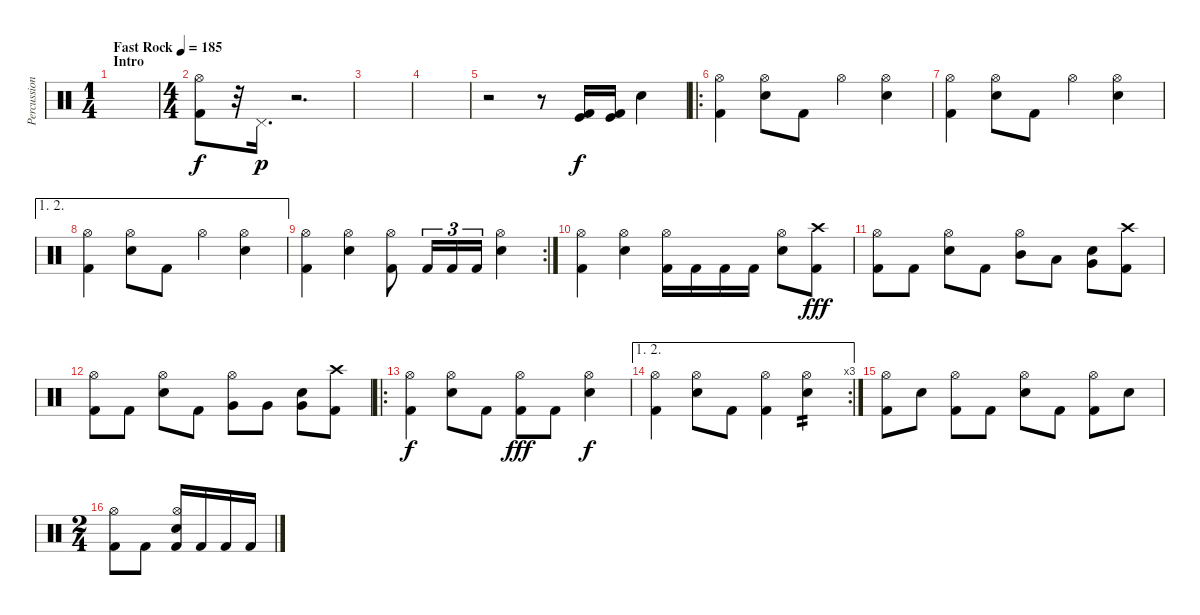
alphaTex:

\track ("Percussioni" "Percussion") {instrument percussion}
\staff {score}
\articulation defaults
\ts (1 4)
\section ("" "Intro")
\tempo (185 "Fast Rock")
\clef neutral
\ks c
|
\ts (4 4)
("Kick (hit) 2" "Hi-Hat (open)").8 r.32 "Pedal Hi-Hat (hit)".16{d dy p} r.2{d} |
|
|
r.2 r.8 ("Kick (hit)" "Kick (hit) 2").16{dy f} ("Kick (hit)" "Kick (hit) 2").16 "Snare (hit) 2".4 |
\ro
("Kick (hit) 2" "Hi-Hat (open)").4 ("Snare (hit) 2" "Hi-Hat (open)").8 "Kick (hit) 2".8 "Hi-Hat (open)".4 ("Snare (hit) 2" "Hi-Hat (open)").4 |
("Kick (hit) 2" "Hi-Hat (open)").4 ("Snare (hit) 2" "Hi-Hat (open)").8 "Kick (hit) 2".8 "Hi-Hat (open)".4 ("Snare (hit) 2" "Hi-Hat (open)").4 |
\ae (1 2)
("Kick (hit) 2" "Hi-Hat (open)").4 ("Snare (hit) 2" "Hi-Hat (open)").8 "Kick (hit) 2".8 "Hi-Hat (open)".4 ("Snare (hit) 2" "Hi-Hat (open)").4 |
\rc 2
("Kick (hit) 2" "Hi-Hat (open)").4 ("Snare (hit) 2" "Hi-Hat (open)").4 ("Kick (hit) 2" "Hi-Hat (open)").8 "Kick (hit) 2".16{tu (3 2)} "Kick (hit) 2".16{tu (3 2)} "Kick (hit) 2".16{tu (3 2)} ("Snare (hit) 2" "Hi-Hat (open)").4 |
("Kick (hit) 2" "Hi-Hat (open)").4 ("Snare (hit) 2" "Hi-Hat (open)").4 ("Kick (hit) 2" "Hi-Hat (open)").16 "Kick (hit) 2".16 "Kick (hit) 2".16 "Kick (hit) 2".16 ("Snare (hit) 2" "Hi-Hat (open)").8 ("Kick (hit) 2" "Crash high (hit)").8{dy fff} |
("Kick (hit) 2" "Hi-Hat (open)").8 "Kick (hit) 2".8 ("Snare (hit) 2" "Hi-Hat (open)").8 "Kick (hit) 2".8 ("Mid Tom (hit)" "Hi-Hat (open)").8 "Low Tom (hit)".8 ("Very Low Tom (hit)" "Snare (hit) 2").8 ("Kick (hit) 2" "Crash high (hit)").8 |
("Kick (hit) 2" "Hi-Hat (open)").8 "Kick (hit) 2".8 ("Snare (hit) 2" "Hi-Hat (open)").8 "Kick (hit) 2".8 ("Very Low Tom (hit)" "Hi-Hat (open)").8 "Very Low Tom (hit)".8 ("Very Low Tom (hit)" "Snare (hit) 2").8 ("Kick (hit) 2" "Crash high (hit)").8 |
\ro
("Kick (hit) 2" "Hi-Hat (open)").4{dy f} ("Snare (hit) 2" "Hi-Hat (open)").8 "Kick (hit) 2".8 ("Kick (hit) 2" "Hi-Hat (open)").8{dy fff} "Kick (hit) 2".8 ("Snare (hit) 2" "Hi-Hat (open)").4{dy f} |
\ae (1 2)
\rc 3
("Kick (hit) 2" "Hi-Hat (open)").4 ("Snare (hit) 2" "Hi-Hat (open)").8 "Kick (hit) 2".8 ("Kick (hit) 2" "Hi-Hat (open)").4 ("Snare (hit) 2" "Hi-Hat (open)").4{tp 2} |
("Hi-Hat (open)" "Kick (hit) 2").8 "Snare (hit) 2".8 ("Hi-Hat (open)" "Kick (hit) 2").8 "Kick (hit) 2".8 ("Hi-Hat (open)" "Snare (hit) 2").8 "Kick (hit) 2".8 ("Hi-Hat (open)" "Kick (hit) 2").8 "Snare (hit) 2".8 |
\ts (2 4)
("Kick (hit) 2" "Hi-Hat (open)").8 "Kick (hit) 2".8 ("Kick (hit) 2" "Snare (hit) 2" "Hi-Hat (open)").16 "Kick (hit) 2".16 "Kick (hit) 2".16 "Kick (hit) 2".16
